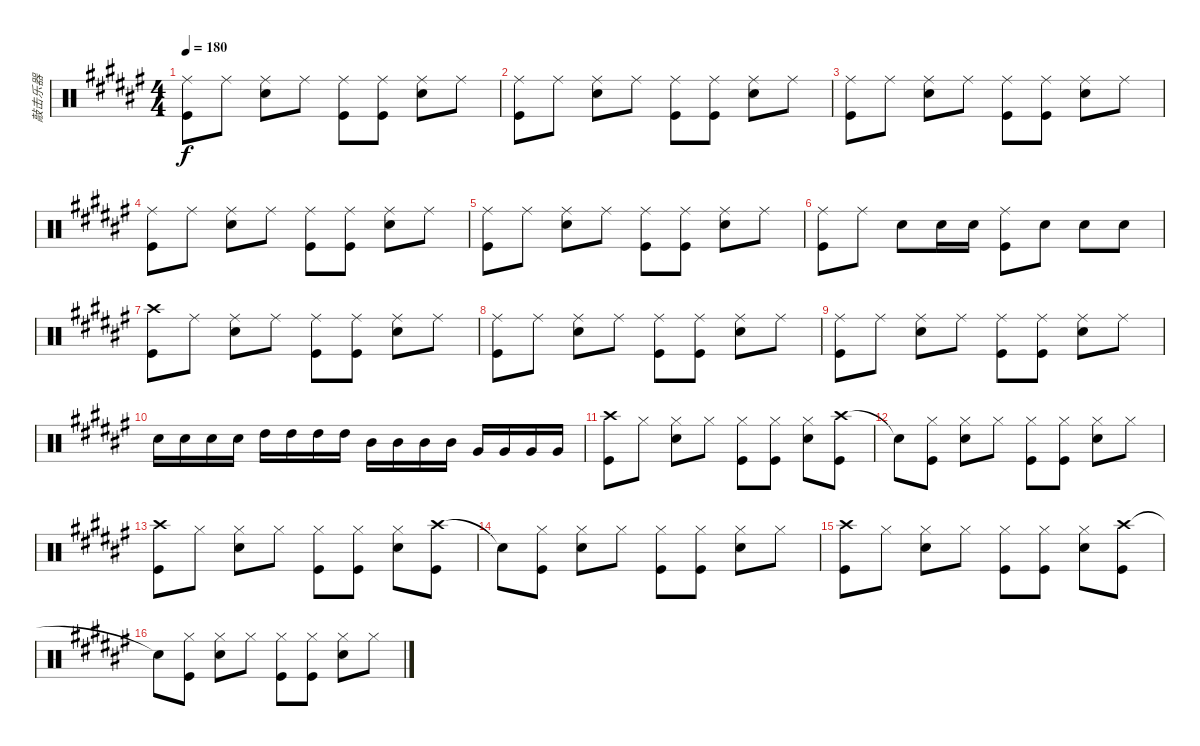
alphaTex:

\track ("敲击乐器" "敲击乐器") {instrument percussion}
\staff {score}
\articulation defaults
\ts (4 4)
\tempo 180
\clef neutral
\ks f#
("Ride (middle)" "Kick (hit)").8{dy f} "Ride (middle)".8 ("Ride (middle)" "Electric Snare (hit)").8 "Ride (middle)".8 ("Ride (middle)" "Kick (hit)").8 ("Ride (middle)" "Kick (hit)").8 ("Ride (middle)" "Electric Snare (hit)").8 "Ride (middle)".8 |
("Ride (middle)" "Kick (hit)").8 "Ride (middle)".8 ("Ride (middle)" "Electric Snare (hit)").8 "Ride (middle)".8 ("Ride (middle)" "Kick (hit)").8 ("Ride (middle)" "Kick (hit)").8 ("Ride (middle)" "Electric Snare (hit)").8 "Ride (middle)".8 |
("Ride (middle)" "Kick (hit)").8 "Ride (middle)".8 ("Ride (middle)" "Electric Snare (hit)").8 "Ride (middle)".8 ("Ride (middle)" "Kick (hit)").8 ("Ride (middle)" "Kick (hit)").8 ("Ride (middle)" "Electric Snare (hit)").8 "Ride (middle)".8 |
("Ride (middle)" "Kick (hit)").8 "Ride (middle)".8 ("Ride (middle)" "Electric Snare (hit)").8 "Ride (middle)".8 ("Ride (middle)" "Kick (hit)").8 ("Ride (middle)" "Kick (hit)").8 ("Ride (middle)" "Electric Snare (hit)").8 "Ride (middle)".8 |
("Ride (middle)" "Kick (hit)").8 "Ride (middle)".8 ("Ride (middle)" "Electric Snare (hit)").8 "Ride (middle)".8 ("Ride (middle)" "Kick (hit)").8 ("Ride (middle)" "Kick (hit)").8 ("Ride (middle)" "Electric Snare (hit)").8 "Ride (middle)".8 |
("Ride (middle)" "Kick (hit)").8 "Ride (middle)".8 "Electric Snare (hit)".8 "Electric Snare (hit)".16 "Electric Snare (hit)".16 ("Ride (middle)" "Kick (hit)").8 "Electric Snare (hit)".8 "Electric Snare (hit)".8 "Electric Snare (hit)".8 |
("Crash high (hit)" "Kick (hit)").8 "Ride (middle)".8 ("Ride (middle)" "Electric Snare (hit)").8 "Ride (middle)".8 ("Ride (middle)" "Kick (hit)").8 ("Ride (middle)" "Kick (hit)").8 ("Ride (middle)" "Electric Snare (hit)").8 "Ride (middle)".8 |
("Ride (middle)" "Kick (hit)").8 "Ride (middle)".8 ("Ride (middle)" "Electric Snare (hit)").8 "Ride (middle)".8 ("Ride (middle)" "Kick (hit)").8 ("Ride (middle)" "Kick (hit)").8 ("Ride (middle)" "Electric Snare (hit)").8 "Ride (middle)".8 |
("Ride (middle)" "Kick (hit)").8 "Ride (middle)".8 ("Ride (middle)" "Electric Snare (hit)").8 "Ride (middle)".8 ("Ride (middle)" "Kick (hit)").8 ("Ride (middle)" "Kick (hit)").8 ("Ride (middle)" "Electric Snare (hit)").8 "Ride (middle)".8 |
"Electric Snare (hit)".16 "Electric Snare (hit)".16 "Electric Snare (hit)".16 "Electric Snare (hit)".16 "High Tom (hit)".16 "High Tom (hit)".16 "High Tom (hit)".16 "High Tom (hit)".16 "Mid Tom (hit)".16 "Mid Tom (hit)".16 "Mid Tom (hit)".16 "Mid Tom (hit)".16 "Very Low Tom (hit)".16 "Very Low Tom (hit)".16 "Very Low Tom (hit)".16 "Very Low Tom (hit)".16 |
("Crash high (hit)" "Kick (hit)").8 "Hi-Hat (closed)".8 ("Hi-Hat (closed)" "Electric Snare (hit)").8 "Hi-Hat (closed)".8 ("Hi-Hat (closed)" "Kick (hit)").8 ("Hi-Hat (closed)" "Kick (hit)").8 ("Hi-Hat (closed)" "Electric Snare (hit)").8 ("Crash high (hit)" "Kick (hit)").8 |
"Snare (hit)"{t}.8 ("Hi-Hat (closed)" "Kick (hit)").8 ("Hi-Hat (closed)" "Electric Snare (hit)").8 "Hi-Hat (closed)".8 ("Hi-Hat (closed)" "Kick (hit)").8 ("Hi-Hat (closed)" "Kick (hit)").8 ("Hi-Hat (closed)" "Electric Snare (hit)").8 "Hi-Hat (closed)".8 |
("Crash high (hit)" "Kick (hit)").8 "Hi-Hat (closed)".8 ("Hi-Hat (closed)" "Electric Snare (hit)").8 "Hi-Hat (closed)".8 ("Hi-Hat (closed)" "Kick (hit)").8 ("Hi-Hat (closed)" "Kick (hit)").8 ("Hi-Hat (closed)" "Electric Snare (hit)").8 ("Crash high (hit)" "Kick (hit)").8 |
"Snare (hit)"{t}.8 ("Hi-Hat (closed)" "Kick (hit)").8 ("Hi-Hat (closed)" "Electric Snare (hit)").8 "Hi-Hat (closed)".8 ("Hi-Hat (closed)" "Kick (hit)").8 ("Hi-Hat (closed)" "Kick (hit)").8 ("Hi-Hat (closed)" "Electric Snare (hit)").8 "Hi-Hat (closed)".8 |
("Crash high (hit)" "Kick (hit)").8 "Hi-Hat (closed)".8 ("Hi-Hat (closed)" "Electric Snare (hit)").8 "Hi-Hat (closed)".8 ("Hi-Hat (closed)" "Kick (hit)").8 ("Hi-Hat (closed)" "Kick (hit)").8 ("Hi-Hat (closed)" "Electric Snare (hit)").8 ("Crash high (hit)" "Kick (hit)").8 |
"Snare (hit)"{t}.8 ("Hi-Hat (closed)" "Kick (hit)").8 ("Hi-Hat (closed)" "Electric Snare (hit)").8 "Hi-Hat (closed)".8 ("Hi-Hat (closed)" "Kick (hit)").8 ("Hi-Hat (closed)" "Kick (hit)").8 ("Hi-Hat (closed)" "Electric Snare (hit)").8 "Hi-Hat (closed)".8
